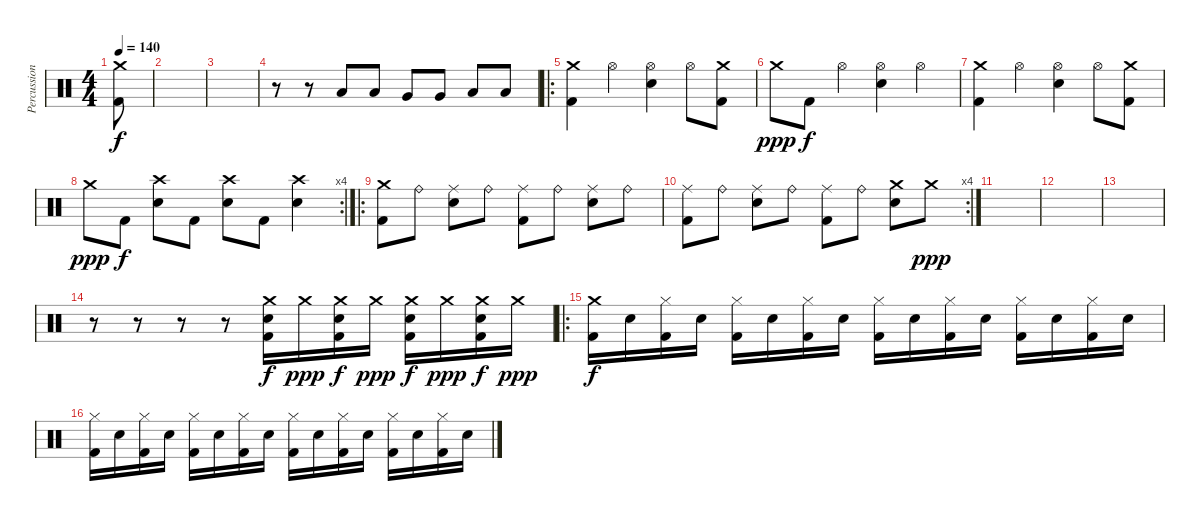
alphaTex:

\track ("Percussion" "Percussion") {instrument percussion}
\staff {score}
\articulation defaults
\ts (4 4)
\tempo 140
\clef neutral
\ks c
("Crash medium (hit)" "Kick (hit) 2").8{dy f} |
|
|
r.8 r.8 "Low Tom (hit)".8 "Low Tom (hit)".8 "Very Low Tom (hit)".8 "Very Low Tom (hit)".8 "Low Floor Tom (hit)".8 "Low Floor Tom (hit)".8 |
\ro
("Crash medium (hit)" "Kick (hit) 2").4 "Hi-Hat (open)".4 ("Hi-Hat (open)" "Electric Snare (hit)").4 "Hi-Hat (open)".8 ("Crash medium (hit)" "Kick (hit) 2").8 |
"Crash medium (hit)".8{dy ppp} "Kick (hit) 2".8{dy f} "Hi-Hat (open)".4 ("Hi-Hat (open)" "Electric Snare (hit)").4 "Hi-Hat (open)".4 |
("Crash medium (hit)" "Kick (hit) 2").4 "Hi-Hat (open)".4 ("Hi-Hat (open)" "Electric Snare (hit)").4 "Hi-Hat (open)".8 ("Crash medium (hit)" "Kick (hit) 2").8 |
\rc 4 "Crash medium (hit)".8{dy ppp} "Kick (hit) 2".8{dy f}
("Crash high (hit)" "Electric Snare (hit)").8 "Kick (hit) 2".8 ("Crash high (hit)" "Electric Snare (hit)").8 "Kick (hit) 2".8 ("Crash high (hit)" "Electric Snare (hit)").4 |
\ro
("Crash medium (hit)" "Kick (hit) 2").8 "Ride (bell)".8 ("Ride (middle)" "Electric Snare (hit)").8 "Ride (bell)".8 ("Ride (middle)" "Kick (hit) 2").8 "Ride (bell)".8 ("Ride (middle)" "Electric Snare (hit)").8 "Ride (bell)".8 |
\rc 4
("Ride (middle)" "Kick (hit) 2").8 "Ride (bell)".8 ("Ride (middle)" "Electric Snare (hit)").8 "Ride (bell)".8 ("Ride (middle)" "Kick (hit) 2").8 "Ride (bell)".8 ("Crash medium (hit)" "Electric Snare (hit)").8 "Crash medium (hit)".8{dy ppp} |
|
|
|
r.8 r.8 r.8 r.8 ("Crash medium (hit)" "Electric Snare (hit)" "Kick (hit) 2").16{dy f} "Crash medium (hit)".16{dy ppp} ("Crash medium (hit)" "Electric Snare (hit)" "Kick (hit) 2").16{dy f} "Crash medium (hit)".16{dy ppp} ("Crash medium (hit)" "Electric Snare (hit)" "Kick (hit) 2").16{dy f} "Crash medium (hit)".16{dy ppp} ("Crash medium (hit)" "Electric Snare (hit)" "Kick (hit) 2").16{dy f} "Crash medium (hit)".16{dy ppp} |
\ro
("Crash medium (hit)" "Kick (hit) 2").16{dy f} "Electric Snare (hit)".16 ("Hi-Hat (closed)" "Kick (hit) 2").16 "Electric Snare (hit)".16 ("Hi-Hat (closed)" "Kick (hit) 2").16 "Electric Snare (hit)".16 ("Hi-Hat (closed)" "Kick (hit) 2").16 "Electric Snare (hit)".16 ("Hi-Hat (closed)" "Kick (hit) 2").16 "Electric Snare (hit)".16 ("Hi-Hat (closed)" "Kick (hit) 2").16 "Electric Snare (hit)".16 ("Hi-Hat (closed)" "Kick (hit) 2").16 "Electric Snare (hit)".16 ("Hi-Hat (closed)" "Kick (hit) 2").16 "Electric Snare (hit)".16 |
("Hi-Hat (closed)" "Kick (hit) 2").16 "Electric Snare (hit)".16 ("Hi-Hat (closed)" "Kick (hit) 2").16 "Electric Snare (hit)".16 ("Hi-Hat (closed)" "Kick (hit) 2").16 "Electric Snare (hit)".16 ("Hi-Hat (closed)" "Kick (hit) 2").16 "Electric Snare (hit)".16 ("Hi-Hat (closed)" "Kick (hit) 2").16 "Electric Snare (hit)".16 ("Hi-Hat (closed)" "Kick (hit) 2").16 "Electric Snare (hit)".16 ("Hi-Hat (closed)" "Kick (hit) 2").16 "Electric Snare (hit)".16 ("Hi-Hat (closed)" "Kick (hit) 2").16 "Electric Snare (hit)".16
